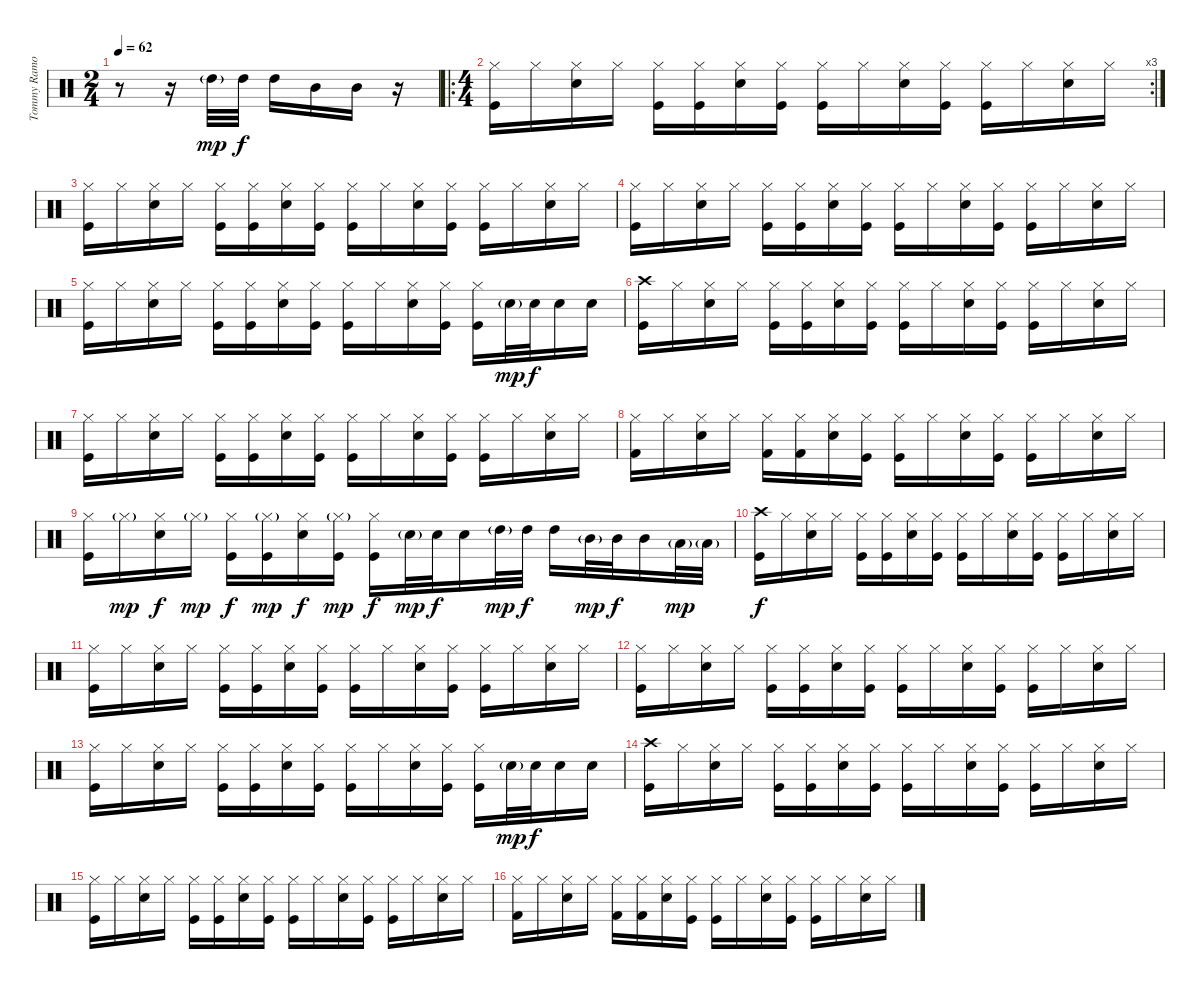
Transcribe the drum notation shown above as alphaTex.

\track ("Tommy Ramone" "Tommy Ramo") {instrument percussion}
\staff {score}
\articulation defaults
\ts (2 4)
\tempo 62
\clef neutral
\ks c
r.8{dy mp} r.16 "High Tom (hit)"{g}.32 "High Tom (hit)".32{dy f} "High Tom (hit)".16 "Mid Tom (hit)".16 "Mid Tom (hit)".16 r.16 |
\ro
\rc 3
\ts (4 4)
("Hi-Hat (closed)" "Kick (hit)").16 "Hi-Hat (closed)".16 ("Hi-Hat (closed)" "Snare (hit) 2").16 "Hi-Hat (closed)".16 ("Hi-Hat (closed)" "Kick (hit)").16 ("Hi-Hat (closed)" "Kick (hit)").16 ("Hi-Hat (closed)" "Snare (hit) 2").16 ("Hi-Hat (closed)" "Kick (hit)").16 ("Hi-Hat (closed)" "Kick (hit)").16 "Hi-Hat (closed)".16 ("Hi-Hat (closed)" "Snare (hit) 2").16 ("Hi-Hat (closed)" "Kick (hit)").16 ("Hi-Hat (closed)" "Kick (hit)").16 "Hi-Hat (closed)".16 ("Hi-Hat (closed)" "Snare (hit) 2").16 "Hi-Hat (closed)".16 |
("Hi-Hat (closed)" "Kick (hit)").16 "Hi-Hat (closed)".16 ("Hi-Hat (closed)" "Snare (hit) 2").16 "Hi-Hat (closed)".16 ("Hi-Hat (closed)" "Kick (hit)").16 ("Hi-Hat (closed)" "Kick (hit)").16 ("Hi-Hat (closed)" "Snare (hit) 2").16 ("Hi-Hat (closed)" "Kick (hit)").16 ("Hi-Hat (closed)" "Kick (hit)").16 "Hi-Hat (closed)".16 ("Hi-Hat (closed)" "Snare (hit) 2").16 ("Hi-Hat (closed)" "Kick (hit)").16 ("Hi-Hat (closed)" "Kick (hit)").16 "Hi-Hat (closed)".16 ("Hi-Hat (closed)" "Snare (hit) 2").16 "Hi-Hat (closed)".16 |
("Hi-Hat (closed)" "Kick (hit)").16 "Hi-Hat (closed)".16 ("Hi-Hat (closed)" "Snare (hit) 2").16 "Hi-Hat (closed)".16 ("Hi-Hat (closed)" "Kick (hit)").16 ("Hi-Hat (closed)" "Kick (hit)").16 ("Hi-Hat (closed)" "Snare (hit) 2").16 ("Hi-Hat (closed)" "Kick (hit)").16 ("Hi-Hat (closed)" "Kick (hit)").16 "Hi-Hat (closed)".16 ("Hi-Hat (closed)" "Snare (hit) 2").16 ("Hi-Hat (closed)" "Kick (hit)").16 ("Hi-Hat (closed)" "Kick (hit)").16 "Hi-Hat (closed)".16 ("Hi-Hat (closed)" "Snare (hit) 2").16 "Hi-Hat (closed)".16 |
("Hi-Hat (closed)" "Kick (hit)").16 "Hi-Hat (closed)".16 ("Hi-Hat (closed)" "Snare (hit) 2").16 "Hi-Hat (closed)".16 ("Hi-Hat (closed)" "Kick (hit)").16 ("Hi-Hat (closed)" "Kick (hit)").16 ("Hi-Hat (closed)" "Snare (hit) 2").16 ("Hi-Hat (closed)" "Kick (hit)").16 ("Hi-Hat (closed)" "Kick (hit)").16 "Hi-Hat (closed)".16 ("Hi-Hat (closed)" "Snare (hit) 2").16 ("Hi-Hat (closed)" "Kick (hit)").16 ("Hi-Hat (closed)" "Kick (hit)").16 "Snare (hit) 2"{g}.32{dy mp} "Snare (hit) 2".32{dy f} "Snare (hit) 2".16 "Snare (hit) 2".16 |
("Crash high (hit)" "Kick (hit)").16 "Hi-Hat (closed)".16 ("Hi-Hat (closed)" "Snare (hit) 2").16 "Hi-Hat (closed)".16 ("Hi-Hat (closed)" "Kick (hit)").16 ("Hi-Hat (closed)" "Kick (hit)").16 ("Hi-Hat (closed)" "Snare (hit) 2").16 ("Hi-Hat (closed)" "Kick (hit)").16 ("Hi-Hat (closed)" "Kick (hit)").16 "Hi-Hat (closed)".16 ("Hi-Hat (closed)" "Snare (hit) 2").16 ("Hi-Hat (closed)" "Kick (hit)").16 ("Hi-Hat (closed)" "Kick (hit)").16 "Hi-Hat (closed)".16 ("Hi-Hat (closed)" "Snare (hit) 2").16 "Hi-Hat (closed)".16 |
("Hi-Hat (closed)" "Kick (hit)").16 "Hi-Hat (closed)".16 ("Hi-Hat (closed)" "Snare (hit) 2").16 "Hi-Hat (closed)".16 ("Hi-Hat (closed)" "Kick (hit)").16 ("Hi-Hat (closed)" "Kick (hit)").16 ("Hi-Hat (closed)" "Snare (hit) 2").16 ("Hi-Hat (closed)" "Kick (hit)").16 ("Hi-Hat (closed)" "Kick (hit)").16 "Hi-Hat (closed)".16 ("Hi-Hat (closed)" "Snare (hit) 2").16 ("Hi-Hat (closed)" "Kick (hit)").16 ("Hi-Hat (closed)" "Kick (hit)").16 "Hi-Hat (closed)".16 ("Hi-Hat (closed)" "Snare (hit) 2").16 "Hi-Hat (closed)".16 |
("Hi-Hat (closed)" "Kick (hit) 2").16 "Hi-Hat (closed)".16 ("Hi-Hat (closed)" "Snare (hit) 2").16 "Hi-Hat (closed)".16 ("Hi-Hat (closed)" "Kick (hit) 2").16 ("Hi-Hat (closed)" "Kick (hit) 2").16 ("Hi-Hat (closed)" "Snare (hit) 2").16 ("Hi-Hat (closed)" "Kick (hit)").16 ("Hi-Hat (closed)" "Kick (hit)").16 "Hi-Hat (closed)".16 ("Hi-Hat (closed)" "Snare (hit) 2").16 ("Hi-Hat (closed)" "Kick (hit)").16 ("Hi-Hat (closed)" "Kick (hit)").16 "Hi-Hat (closed)".16 ("Hi-Hat (closed)" "Snare (hit) 2").16 "Hi-Hat (closed)".16 |
("Hi-Hat (closed)" "Kick (hit)").16 "Hi-Hat (closed)"{g}.16{dy mp} ("Hi-Hat (closed)" "Snare (hit) 2").16{dy f} "Hi-Hat (closed)"{g}.16{dy mp} ("Hi-Hat (closed)" "Kick (hit)").16{dy f} ("Hi-Hat (closed)"{g} "Kick (hit)").16{dy mp} ("Hi-Hat (closed)" "Snare (hit) 2").16{dy f} ("Hi-Hat (closed)"{g} "Kick (hit)").16{dy mp} ("Hi-Hat (closed)" "Kick (hit)").16{dy f} "Snare (hit) 2"{g}.32{dy mp} "Snare (hit) 2".32{dy f} "Snare (hit) 2".16 "High Tom (hit)"{g}.32{dy mp} "High Tom (hit)".32{dy f} "High Tom (hit)".16 "Mid Tom (hit)"{g}.32{dy mp} "Mid Tom (hit)".32{dy f} "Mid Tom (hit)".16 "Low Tom (hit)"{g}.32{dy mp} "Low Tom (hit)"{g}.32 |
("Crash high (hit)" "Kick (hit)").16{dy f} "Hi-Hat (closed)".16 ("Hi-Hat (closed)" "Snare (hit) 2").16 "Hi-Hat (closed)".16 ("Hi-Hat (closed)" "Kick (hit)").16 ("Hi-Hat (closed)" "Kick (hit)").16 ("Hi-Hat (closed)" "Snare (hit) 2").16 ("Hi-Hat (closed)" "Kick (hit)").16 ("Hi-Hat (closed)" "Kick (hit)").16 "Hi-Hat (closed)".16 ("Hi-Hat (closed)" "Snare (hit) 2").16 ("Hi-Hat (closed)" "Kick (hit)").16 ("Hi-Hat (closed)" "Kick (hit)").16 "Hi-Hat (closed)".16 ("Hi-Hat (closed)" "Snare (hit) 2").16 "Hi-Hat (closed)".16 |
("Hi-Hat (closed)" "Kick (hit)").16 "Hi-Hat (closed)".16 ("Hi-Hat (closed)" "Snare (hit) 2").16 "Hi-Hat (closed)".16 ("Hi-Hat (closed)" "Kick (hit)").16 ("Hi-Hat (closed)" "Kick (hit)").16 ("Hi-Hat (closed)" "Snare (hit) 2").16 ("Hi-Hat (closed)" "Kick (hit)").16 ("Hi-Hat (closed)" "Kick (hit)").16 "Hi-Hat (closed)".16 ("Hi-Hat (closed)" "Snare (hit) 2").16 ("Hi-Hat (closed)" "Kick (hit)").16 ("Hi-Hat (closed)" "Kick (hit)").16 "Hi-Hat (closed)".16 ("Hi-Hat (closed)" "Snare (hit) 2").16 "Hi-Hat (closed)".16 |
("Hi-Hat (closed)" "Kick (hit)").16 "Hi-Hat (closed)".16 ("Hi-Hat (closed)" "Snare (hit) 2").16 "Hi-Hat (closed)".16 ("Hi-Hat (closed)" "Kick (hit)").16 ("Hi-Hat (closed)" "Kick (hit)").16 ("Hi-Hat (closed)" "Snare (hit) 2").16 ("Hi-Hat (closed)" "Kick (hit)").16 ("Hi-Hat (closed)" "Kick (hit)").16 "Hi-Hat (closed)".16 ("Hi-Hat (closed)" "Snare (hit) 2").16 ("Hi-Hat (closed)" "Kick (hit)").16 ("Hi-Hat (closed)" "Kick (hit)").16 "Hi-Hat (closed)".16 ("Hi-Hat (closed)" "Snare (hit) 2").16 "Hi-Hat (closed)".16 |
("Hi-Hat (closed)" "Kick (hit)").16 "Hi-Hat (closed)".16 ("Hi-Hat (closed)" "Snare (hit) 2").16 "Hi-Hat (closed)".16 ("Hi-Hat (closed)" "Kick (hit)").16 ("Hi-Hat (closed)" "Kick (hit)").16 ("Hi-Hat (closed)" "Snare (hit) 2").16 ("Hi-Hat (closed)" "Kick (hit)").16 ("Hi-Hat (closed)" "Kick (hit)").16 "Hi-Hat (closed)".16 ("Hi-Hat (closed)" "Snare (hit) 2").16 ("Hi-Hat (closed)" "Kick (hit)").16 ("Hi-Hat (closed)" "Kick (hit)").16 "Snare (hit) 2"{g}.32{dy mp} "Snare (hit) 2".32{dy f} "Snare (hit) 2".16 "Snare (hit) 2".16 |
("Crash high (hit)" "Kick (hit)").16 "Hi-Hat (closed)".16 ("Hi-Hat (closed)" "Snare (hit) 2").16 "Hi-Hat (closed)".16 ("Hi-Hat (closed)" "Kick (hit)").16 ("Hi-Hat (closed)" "Kick (hit)").16 ("Hi-Hat (closed)" "Snare (hit) 2").16 ("Hi-Hat (closed)" "Kick (hit)").16 ("Hi-Hat (closed)" "Kick (hit)").16 "Hi-Hat (closed)".16 ("Hi-Hat (closed)" "Snare (hit) 2").16 ("Hi-Hat (closed)" "Kick (hit)").16 ("Hi-Hat (closed)" "Kick (hit)").16 "Hi-Hat (closed)".16 ("Hi-Hat (closed)" "Snare (hit) 2").16 "Hi-Hat (closed)".16 |
("Hi-Hat (closed)" "Kick (hit)").16 "Hi-Hat (closed)".16 ("Hi-Hat (closed)" "Snare (hit) 2").16 "Hi-Hat (closed)".16 ("Hi-Hat (closed)" "Kick (hit)").16 ("Hi-Hat (closed)" "Kick (hit)").16 ("Hi-Hat (closed)" "Snare (hit) 2").16 ("Hi-Hat (closed)" "Kick (hit)").16 ("Hi-Hat (closed)" "Kick (hit)").16 "Hi-Hat (closed)".16 ("Hi-Hat (closed)" "Snare (hit) 2").16 ("Hi-Hat (closed)" "Kick (hit)").16 ("Hi-Hat (closed)" "Kick (hit)").16 "Hi-Hat (closed)".16 ("Hi-Hat (closed)" "Snare (hit) 2").16 "Hi-Hat (closed)".16 |
("Hi-Hat (closed)" "Kick (hit) 2").16 "Hi-Hat (closed)".16 ("Hi-Hat (closed)" "Snare (hit) 2").16 "Hi-Hat (closed)".16 ("Hi-Hat (closed)" "Kick (hit) 2").16 ("Hi-Hat (closed)" "Kick (hit) 2").16 ("Hi-Hat (closed)" "Snare (hit) 2").16 ("Hi-Hat (closed)" "Kick (hit)").16 ("Hi-Hat (closed)" "Kick (hit)").16 "Hi-Hat (closed)".16 ("Hi-Hat (closed)" "Snare (hit) 2").16 ("Hi-Hat (closed)" "Kick (hit)").16 ("Hi-Hat (closed)" "Kick (hit)").16 "Hi-Hat (closed)".16 ("Hi-Hat (closed)" "Snare (hit) 2").16 "Hi-Hat (closed)".16
